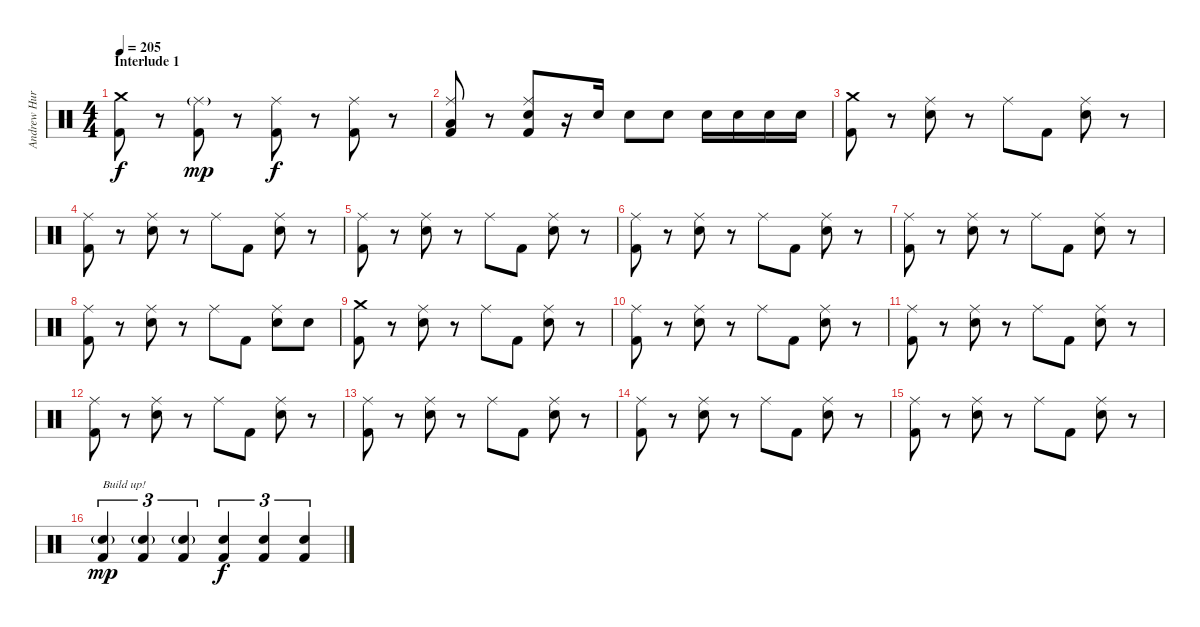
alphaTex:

\track ("Andrew Hurley (Drums)" "Andrew Hur") {instrument percussion}
\staff {score}
\articulation defaults
\ts (4 4)
\section ("" "Interlude 1")
\tempo 205
\clef neutral
\ks c
("Crash medium (hit)" "Kick (hit) 2").8{dy f} r.8 ("Ride (middle)"{g} "Kick (hit) 2").8{dy mp} r.8 ("Ride (middle)" "Kick (hit) 2").8{dy f} r.8 ("Ride (middle)" "Kick (hit) 2").8 r.8 |
("Ride (middle)" "Low Tom (hit)" "Kick (hit) 2").8 r.8 ("Ride (middle)" "Electric Snare (hit)" "Kick (hit) 2").8 r.16 "Electric Snare (hit)".16 "Electric Snare (hit)".8 "Electric Snare (hit)".8 "Electric Snare (hit)".16 "Electric Snare (hit)".16 "Electric Snare (hit)".16 "Electric Snare (hit)".16 |
("Crash medium (hit)" "Kick (hit) 2").8 r.8 ("Ride (middle)" "Electric Snare (hit)").8 r.8 "Ride (middle)".8 "Kick (hit) 2".8 ("Ride (middle)" "Electric Snare (hit)").8 r.8 |
("Ride (middle)" "Kick (hit) 2").8 r.8 ("Ride (middle)" "Electric Snare (hit)").8 r.8 "Ride (middle)".8 "Kick (hit) 2".8 ("Ride (middle)" "Electric Snare (hit)").8 r.8 |
("Ride (middle)" "Kick (hit) 2").8 r.8 ("Ride (middle)" "Electric Snare (hit)").8 r.8 "Ride (middle)".8 "Kick (hit) 2".8 ("Ride (middle)" "Electric Snare (hit)").8 r.8 |
("Ride (middle)" "Kick (hit) 2").8 r.8 ("Ride (middle)" "Electric Snare (hit)").8 r.8 "Ride (middle)".8 "Kick (hit) 2".8 ("Ride (middle)" "Electric Snare (hit)").8 r.8 |
("Ride (middle)" "Kick (hit) 2").8 r.8 ("Ride (middle)" "Electric Snare (hit)").8 r.8 "Ride (middle)".8 "Kick (hit) 2".8 ("Ride (middle)" "Electric Snare (hit)").8 r.8 |
("Ride (middle)" "Kick (hit) 2").8 r.8 ("Ride (middle)" "Electric Snare (hit)").8 r.8 "Ride (middle)".8 "Kick (hit) 2".8 ("Ride (middle)" "Electric Snare (hit)").8 "Electric Snare (hit)".8 |
("Crash medium (hit)" "Kick (hit) 2").8 r.8 ("Ride (middle)" "Electric Snare (hit)").8 r.8 "Ride (middle)".8 "Kick (hit) 2".8 ("Ride (middle)" "Electric Snare (hit)").8 r.8 |
("Ride (middle)" "Kick (hit) 2").8 r.8 ("Ride (middle)" "Electric Snare (hit)").8 r.8 "Ride (middle)".8 "Kick (hit) 2".8 ("Ride (middle)" "Electric Snare (hit)").8 r.8 |
("Ride (middle)" "Kick (hit) 2").8 r.8 ("Ride (middle)" "Electric Snare (hit)").8 r.8 "Ride (middle)".8 "Kick (hit) 2".8 ("Ride (middle)" "Electric Snare (hit)").8 r.8 |
("Ride (middle)" "Kick (hit) 2").8 r.8 ("Ride (middle)" "Electric Snare (hit)").8 r.8 "Ride (middle)".8 "Kick (hit) 2".8 ("Ride (middle)" "Electric Snare (hit)").8 r.8 |
("Ride (middle)" "Kick (hit) 2").8 r.8 ("Ride (middle)" "Electric Snare (hit)").8 r.8 "Ride (middle)".8 "Kick (hit) 2".8 ("Ride (middle)" "Electric Snare (hit)").8 r.8 |
("Ride (middle)" "Kick (hit) 2").8 r.8 ("Ride (middle)" "Electric Snare (hit)").8 r.8 "Ride (middle)".8 "Kick (hit) 2".8 ("Ride (middle)" "Electric Snare (hit)").8 r.8 |
("Ride (middle)" "Kick (hit) 2").8 r.8 ("Ride (middle)" "Electric Snare (hit)").8 r.8 "Ride (middle)".8 "Kick (hit) 2".8 ("Ride (middle)" "Electric Snare (hit)").8 r.8 |
("Electric Snare (hit)"{g} "Kick (hit) 2").4{tu (3 2) txt "Build up!" dy mp} ("Electric Snare (hit)"{g} "Kick (hit) 2").4{tu (3 2)} ("Electric Snare (hit)"{g} "Kick (hit) 2").4{tu (3 2)} ("Electric Snare (hit)" "Kick (hit) 2").4{tu (3 2) dy f} ("Electric Snare (hit)" "Kick (hit) 2").4{tu (3 2)} ("Electric Snare (hit)" "Kick (hit) 2").4{tu (3 2)}
